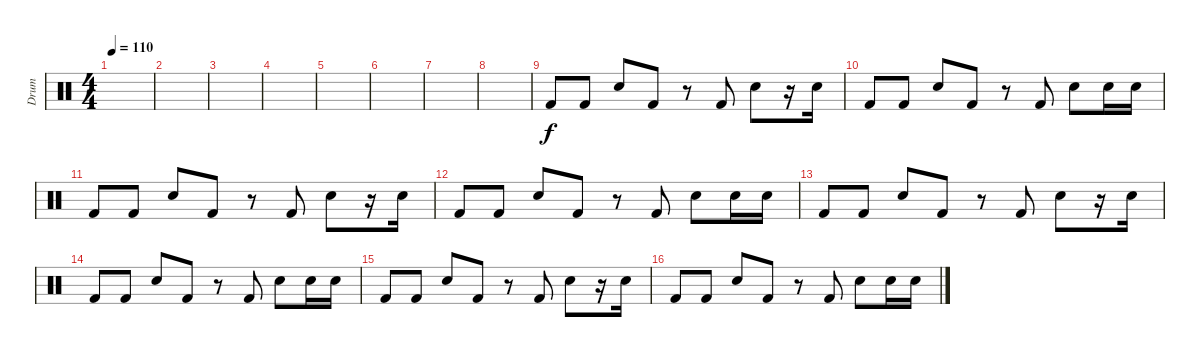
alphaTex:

\track ("Drum" "Drum") {instrument percussion}
\staff {score}
\articulation defaults
\ts (4 4)
\tempo 110
\clef neutral
\ks c
|
|
|
|
|
|
|
|
"Kick (hit) 2".8 "Kick (hit) 2".8 "Snare (hit) 2".8 "Kick (hit) 2".8 r.8 "Kick (hit) 2".8 "Snare (hit) 2".8 r.16 "Snare (hit) 2".16 |
"Kick (hit) 2".8 "Kick (hit) 2".8 "Snare (hit) 2".8 "Kick (hit) 2".8 r.8 "Kick (hit) 2".8 "Snare (hit) 2".8 "Snare (hit) 2".16 "Snare (hit) 2".16 |
"Kick (hit) 2".8 "Kick (hit) 2".8 "Snare (hit) 2".8 "Kick (hit) 2".8 r.8 "Kick (hit) 2".8 "Snare (hit) 2".8 r.16 "Snare (hit) 2".16 |
"Kick (hit) 2".8 "Kick (hit) 2".8 "Snare (hit) 2".8 "Kick (hit) 2".8 r.8 "Kick (hit) 2".8 "Snare (hit) 2".8 "Snare (hit) 2".16 "Snare (hit) 2".16 |
"Kick (hit) 2".8 "Kick (hit) 2".8 "Snare (hit) 2".8 "Kick (hit) 2".8 r.8 "Kick (hit) 2".8 "Snare (hit) 2".8 r.16 "Snare (hit) 2".16 |
"Kick (hit) 2".8 "Kick (hit) 2".8 "Snare (hit) 2".8 "Kick (hit) 2".8 r.8 "Kick (hit) 2".8 "Snare (hit) 2".8 "Snare (hit) 2".16 "Snare (hit) 2".16 |
"Kick (hit) 2".8 "Kick (hit) 2".8 "Snare (hit) 2".8 "Kick (hit) 2".8 r.8 "Kick (hit) 2".8 "Snare (hit) 2".8 r.16 "Snare (hit) 2".16 |
"Kick (hit) 2".8 "Kick (hit) 2".8 "Snare (hit) 2".8 "Kick (hit) 2".8 r.8 "Kick (hit) 2".8 "Snare (hit) 2".8 "Snare (hit) 2".16 "Snare (hit) 2".16
